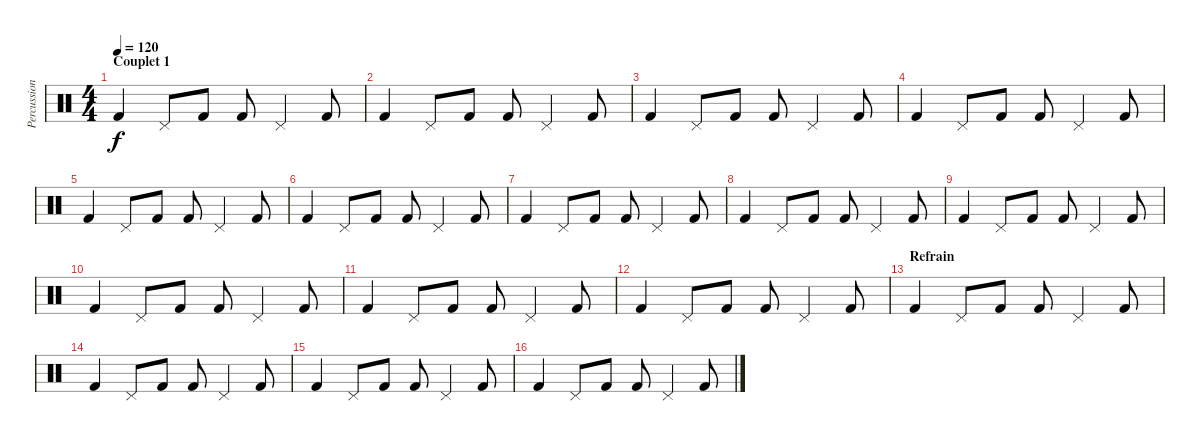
\track ("Percussions" "Percussion") {instrument percussion}
\staff {score}
\articulation defaults
\ts (4 4)
\section ("" "Couplet 1")
\tempo 120
\clef neutral
\ks c "Kick (hit) 2".4{dy f} "Pedal Hi-Hat (hit)".8 "Kick (hit) 2".8 "Kick (hit) 2".8 "Pedal Hi-Hat (hit)".4 "Kick (hit) 2".8
|
"Kick (hit) 2".4 "Pedal Hi-Hat (hit)".8 "Kick (hit) 2".8 "Kick (hit) 2".8 "Pedal Hi-Hat (hit)".4 "Kick (hit) 2".8 |
"Kick (hit) 2".4 "Pedal Hi-Hat (hit)".8 "Kick (hit) 2".8 "Kick (hit) 2".8 "Pedal Hi-Hat (hit)".4 "Kick (hit) 2".8 |
"Kick (hit) 2".4 "Pedal Hi-Hat (hit)".8 "Kick (hit) 2".8 "Kick (hit) 2".8 "Pedal Hi-Hat (hit)".4 "Kick (hit) 2".8 |
"Kick (hit) 2".4 "Pedal Hi-Hat (hit)".8 "Kick (hit) 2".8 "Kick (hit) 2".8 "Pedal Hi-Hat (hit)".4 "Kick (hit) 2".8 |
"Kick (hit) 2".4 "Pedal Hi-Hat (hit)".8 "Kick (hit) 2".8 "Kick (hit) 2".8 "Pedal Hi-Hat (hit)".4 "Kick (hit) 2".8 |
"Kick (hit) 2".4 "Pedal Hi-Hat (hit)".8 "Kick (hit) 2".8 "Kick (hit) 2".8 "Pedal Hi-Hat (hit)".4 "Kick (hit) 2".8 |
"Kick (hit) 2".4 "Pedal Hi-Hat (hit)".8 "Kick (hit) 2".8 "Kick (hit) 2".8 "Pedal Hi-Hat (hit)".4 "Kick (hit) 2".8 |
"Kick (hit) 2".4 "Pedal Hi-Hat (hit)".8 "Kick (hit) 2".8 "Kick (hit) 2".8 "Pedal Hi-Hat (hit)".4 "Kick (hit) 2".8 |
"Kick (hit) 2".4 "Pedal Hi-Hat (hit)".8 "Kick (hit) 2".8 "Kick (hit) 2".8 "Pedal Hi-Hat (hit)".4 "Kick (hit) 2".8 |
"Kick (hit) 2".4 "Pedal Hi-Hat (hit)".8 "Kick (hit) 2".8 "Kick (hit) 2".8 "Pedal Hi-Hat (hit)".4 "Kick (hit) 2".8 |
"Kick (hit) 2".4 "Pedal Hi-Hat (hit)".8 "Kick (hit) 2".8 "Kick (hit) 2".8 "Pedal Hi-Hat (hit)".4 "Kick (hit) 2".8 |
\section ("" "Refrain")
"Kick (hit) 2".4 "Pedal Hi-Hat (hit)".8 "Kick (hit) 2".8 "Kick (hit) 2".8 "Pedal Hi-Hat (hit)".4 "Kick (hit) 2".8 |
"Kick (hit) 2".4 "Pedal Hi-Hat (hit)".8 "Kick (hit) 2".8 "Kick (hit) 2".8 "Pedal Hi-Hat (hit)".4 "Kick (hit) 2".8 |
"Kick (hit) 2".4 "Pedal Hi-Hat (hit)".8 "Kick (hit) 2".8 "Kick (hit) 2".8 "Pedal Hi-Hat (hit)".4 "Kick (hit) 2".8 |
"Kick (hit) 2".4 "Pedal Hi-Hat (hit)".8 "Kick (hit) 2".8 "Kick (hit) 2".8 "Pedal Hi-Hat (hit)".4 "Kick (hit) 2".8
